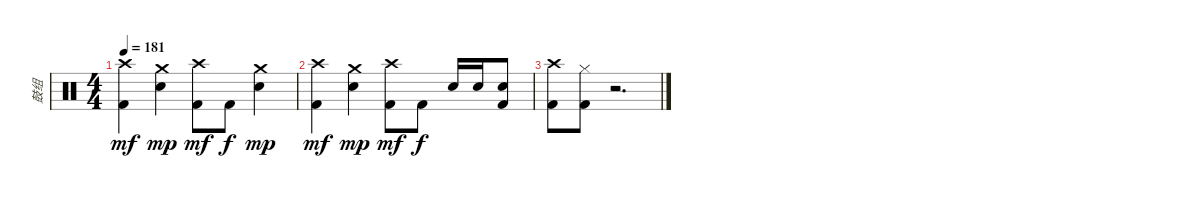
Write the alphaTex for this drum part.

\track ("鼓组" "鼓组") {instrument percussion}
\staff {score}
\articulation defaults
\ts (4 4)
\tempo 181
\clef neutral
\ks c
("Crash high (hit)" "Kick (hit) 2").4{dy mf} ("Crash medium (hit)" "Snare (hit) 2").4{dy mp} ("Crash high (hit)" "Kick (hit) 2").8{dy mf} "Kick (hit) 2".8{dy f} ("Crash medium (hit)" "Snare (hit) 2").4{dy mp} |
("Crash high (hit)" "Kick (hit) 2").4{dy mf} ("Crash medium (hit)" "Snare (hit) 2").4{dy mp} ("Crash high (hit)" "Kick (hit) 2").8{dy mf} "Kick (hit) 2".8{dy f} "Snare (hit) 2".16 "Snare (hit) 2".16 ("Snare (hit) 2" "Kick (hit) 2").8 |
("Crash high (hit)" "Kick (hit) 2").8 ("Hi-Hat (closed)" "Kick (hit) 2").8 r.2{d}
